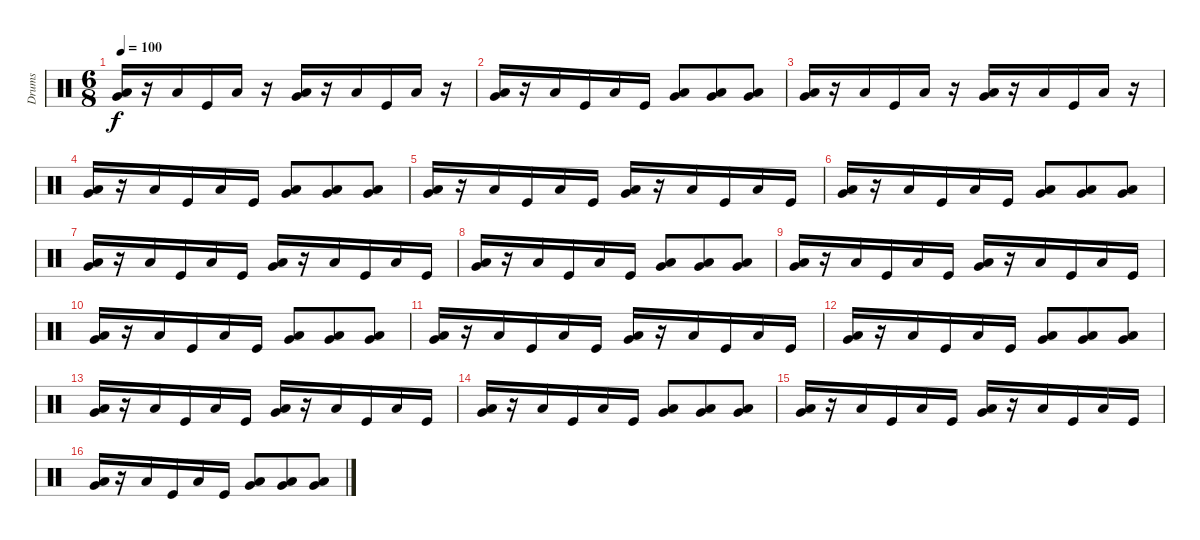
\track ("Drums" "Drums") {instrument percussion}
\staff {score}
\articulation defaults
\ts (6 8)
\tempo 100
\clef neutral
\ks c
("Low Floor Tom (hit)" "Very Low Tom (hit)").16{dy f} r.16 "Low Floor Tom (hit)".16 "Kick (hit)".16 "Low Floor Tom (hit)".16 r.16 ("Low Floor Tom (hit)" "Very Low Tom (hit)").16 r.16 "Low Floor Tom (hit)".16 "Kick (hit)".16 "Low Floor Tom (hit)".16 r.16 |
("Low Floor Tom (hit)" "Very Low Tom (hit)").16 r.16 "Low Floor Tom (hit)".16 "Kick (hit)".16 "Low Floor Tom (hit)".16 "Kick (hit)".16 ("Low Floor Tom (hit)" "Very Low Tom (hit)").8 ("Low Floor Tom (hit)" "Very Low Tom (hit)").8 ("Low Floor Tom (hit)" "Very Low Tom (hit)").8 |
("Low Floor Tom (hit)" "Very Low Tom (hit)").16 r.16 "Low Floor Tom (hit)".16 "Kick (hit)".16 "Low Floor Tom (hit)".16 r.16 ("Low Floor Tom (hit)" "Very Low Tom (hit)").16 r.16 "Low Floor Tom (hit)".16 "Kick (hit)".16 "Low Floor Tom (hit)".16 r.16 |
("Low Floor Tom (hit)" "Very Low Tom (hit)").16 r.16 "Low Floor Tom (hit)".16 "Kick (hit)".16 "Low Floor Tom (hit)".16 "Kick (hit)".16 ("Low Floor Tom (hit)" "Very Low Tom (hit)").8 ("Low Floor Tom (hit)" "Very Low Tom (hit)").8 ("Low Floor Tom (hit)" "Very Low Tom (hit)").8 |
("Low Floor Tom (hit)" "Very Low Tom (hit)").16 r.16 "Low Floor Tom (hit)".16 "Kick (hit)".16 "Low Floor Tom (hit)".16 "Kick (hit)".16 ("Low Floor Tom (hit)" "Very Low Tom (hit)").16 r.16 "Low Floor Tom (hit)".16 "Kick (hit)".16 "Low Floor Tom (hit)".16 "Kick (hit)".16 |
("Low Floor Tom (hit)" "Very Low Tom (hit)").16 r.16 "Low Floor Tom (hit)".16 "Kick (hit)".16 "Low Floor Tom (hit)".16 "Kick (hit)".16 ("Low Floor Tom (hit)" "Very Low Tom (hit)").8 ("Low Floor Tom (hit)" "Very Low Tom (hit)").8 ("Low Floor Tom (hit)" "Very Low Tom (hit)").8 |
("Low Floor Tom (hit)" "Very Low Tom (hit)").16 r.16 "Low Floor Tom (hit)".16 "Kick (hit)".16 "Low Floor Tom (hit)".16 "Kick (hit)".16 ("Low Floor Tom (hit)" "Very Low Tom (hit)").16 r.16 "Low Floor Tom (hit)".16 "Kick (hit)".16 "Low Floor Tom (hit)".16 "Kick (hit)".16 |
("Low Floor Tom (hit)" "Very Low Tom (hit)").16 r.16 "Low Floor Tom (hit)".16 "Kick (hit)".16 "Low Floor Tom (hit)".16 "Kick (hit)".16 ("Low Floor Tom (hit)" "Very Low Tom (hit)").8 ("Low Floor Tom (hit)" "Very Low Tom (hit)").8 ("Low Floor Tom (hit)" "Very Low Tom (hit)").8 |
("Low Floor Tom (hit)" "Very Low Tom (hit)").16 r.16 "Low Floor Tom (hit)".16 "Kick (hit)".16 "Low Floor Tom (hit)".16 "Kick (hit)".16 ("Low Floor Tom (hit)" "Very Low Tom (hit)").16 r.16 "Low Floor Tom (hit)".16 "Kick (hit)".16 "Low Floor Tom (hit)".16 "Kick (hit)".16 |
("Low Floor Tom (hit)" "Very Low Tom (hit)").16 r.16 "Low Floor Tom (hit)".16 "Kick (hit)".16 "Low Floor Tom (hit)".16 "Kick (hit)".16 ("Low Floor Tom (hit)" "Very Low Tom (hit)").8 ("Low Floor Tom (hit)" "Very Low Tom (hit)").8 ("Low Floor Tom (hit)" "Very Low Tom (hit)").8 |
("Low Floor Tom (hit)" "Very Low Tom (hit)").16 r.16 "Low Floor Tom (hit)".16 "Kick (hit)".16 "Low Floor Tom (hit)".16 "Kick (hit)".16 ("Low Floor Tom (hit)" "Very Low Tom (hit)").16 r.16 "Low Floor Tom (hit)".16 "Kick (hit)".16 "Low Floor Tom (hit)".16 "Kick (hit)".16 |
("Low Floor Tom (hit)" "Very Low Tom (hit)").16 r.16 "Low Floor Tom (hit)".16 "Kick (hit)".16 "Low Floor Tom (hit)".16 "Kick (hit)".16 ("Low Floor Tom (hit)" "Very Low Tom (hit)").8 ("Low Floor Tom (hit)" "Very Low Tom (hit)").8 ("Low Floor Tom (hit)" "Very Low Tom (hit)").8 |
("Low Floor Tom (hit)" "Very Low Tom (hit)").16 r.16 "Low Floor Tom (hit)".16 "Kick (hit)".16 "Low Floor Tom (hit)".16 "Kick (hit)".16 ("Low Floor Tom (hit)" "Very Low Tom (hit)").16 r.16 "Low Floor Tom (hit)".16 "Kick (hit)".16 "Low Floor Tom (hit)".16 "Kick (hit)".16 |
("Low Floor Tom (hit)" "Very Low Tom (hit)").16 r.16 "Low Floor Tom (hit)".16 "Kick (hit)".16 "Low Floor Tom (hit)".16 "Kick (hit)".16 ("Low Floor Tom (hit)" "Very Low Tom (hit)").8 ("Low Floor Tom (hit)" "Very Low Tom (hit)").8 ("Low Floor Tom (hit)" "Very Low Tom (hit)").8 |
("Low Floor Tom (hit)" "Very Low Tom (hit)").16 r.16 "Low Floor Tom (hit)".16 "Kick (hit)".16 "Low Floor Tom (hit)".16 "Kick (hit)".16 ("Low Floor Tom (hit)" "Very Low Tom (hit)").16 r.16 "Low Floor Tom (hit)".16 "Kick (hit)".16 "Low Floor Tom (hit)".16 "Kick (hit)".16 |
("Low Floor Tom (hit)" "Very Low Tom (hit)").16 r.16 "Low Floor Tom (hit)".16 "Kick (hit)".16 "Low Floor Tom (hit)".16 "Kick (hit)".16 ("Low Floor Tom (hit)" "Very Low Tom (hit)").8 ("Low Floor Tom (hit)" "Very Low Tom (hit)").8 ("Low Floor Tom (hit)" "Very Low Tom (hit)").8
